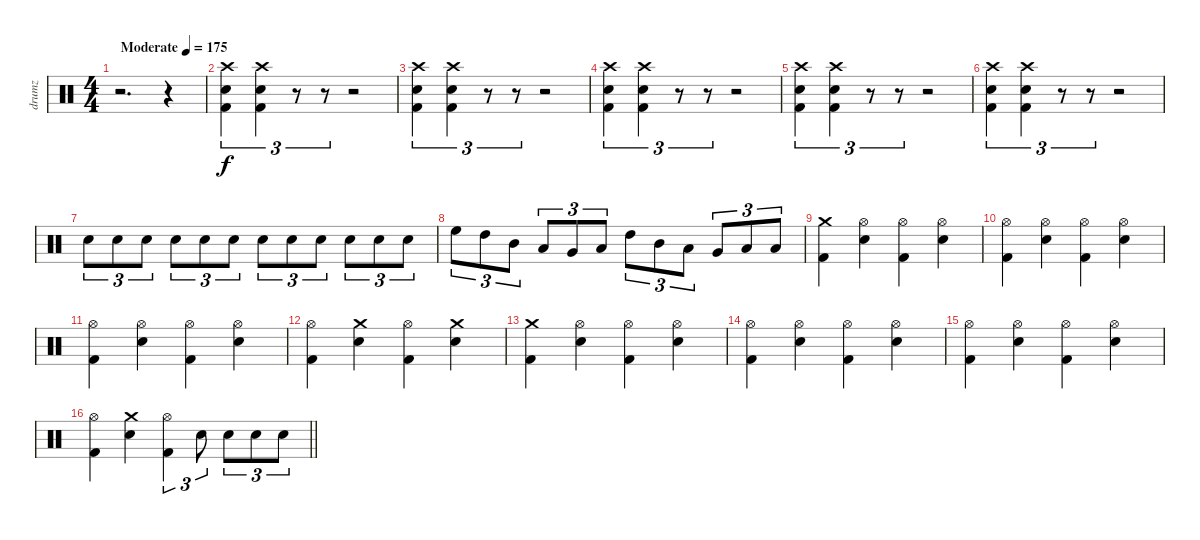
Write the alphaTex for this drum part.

\track ("drumz" "drumz") {instrument percussion}
\staff {score}
\articulation defaults
\ts (4 4)
\tempo (175 "Moderate")
\clef neutral
\ks c
r.2{d dy f} r.4 |
("Crash high (hit)" "Electric Snare (hit)" "Kick (hit) 2").4{tu (3 2)} ("Crash high (hit)" "Electric Snare (hit)" "Kick (hit) 2").4{tu (3 2)} r.8{tu (3 2)} r.8{tu (3 2)} r.2 |
("Crash high (hit)" "Electric Snare (hit)" "Kick (hit) 2").4{tu (3 2)} ("Crash high (hit)" "Electric Snare (hit)" "Kick (hit) 2").4{tu (3 2)} r.8{tu (3 2)} r.8{tu (3 2)} r.2 |
("Crash high (hit)" "Electric Snare (hit)" "Kick (hit) 2").4{tu (3 2)} ("Crash high (hit)" "Electric Snare (hit)" "Kick (hit) 2").4{tu (3 2)} r.8{tu (3 2)} r.8{tu (3 2)} r.2 |
("Crash high (hit)" "Electric Snare (hit)" "Kick (hit) 2").4{tu (3 2)} ("Crash high (hit)" "Electric Snare (hit)" "Kick (hit) 2").4{tu (3 2)} r.8{tu (3 2)} r.8{tu (3 2)} r.2 |
("Crash high (hit)" "Electric Snare (hit)" "Kick (hit) 2").4{tu (3 2)} ("Crash high (hit)" "Electric Snare (hit)" "Kick (hit) 2").4{tu (3 2)} r.8{tu (3 2)} r.8{tu (3 2)} r.2 |
"Electric Snare (hit)".8{tu (3 2)} "Electric Snare (hit)".8{tu (3 2)} "Electric Snare (hit)".8{tu (3 2)} "Electric Snare (hit)".8{tu (3 2)} "Electric Snare (hit)".8{tu (3 2)} "Electric Snare (hit)".8{tu (3 2)} "Electric Snare (hit)".8{tu (3 2)} "Electric Snare (hit)".8{tu (3 2)} "Electric Snare (hit)".8{tu (3 2)} "Electric Snare (hit)".8{tu (3 2)} "Electric Snare (hit)".8{tu (3 2)} "Electric Snare (hit)".8{tu (3 2)} |
"High Floor Tom (hit)".8{tu (3 2)} "High Tom (hit)".8{tu (3 2)} "Mid Tom (hit)".8{tu (3 2)} "Low Tom (hit)".8{tu (3 2)} "Very Low Tom (hit)".8{tu (3 2)} "Low Floor Tom (hit)".8{tu (3 2)} "High Tom (hit)".8{tu (3 2)} "Mid Tom (hit)".8{tu (3 2)} "Low Tom (hit)".8{tu (3 2)} "Very Low Tom (hit)".8{tu (3 2)} "Low Floor Tom (hit)".8{tu (3 2)} "Low Floor Tom (hit)".8{tu (3 2)} |
("Crash medium (hit)" "Kick (hit) 2").4 ("Hi-Hat (open)" "Electric Snare (hit)").4 ("Hi-Hat (open)" "Kick (hit) 2").4 ("Hi-Hat (open)" "Electric Snare (hit)").4 |
("Hi-Hat (open)" "Kick (hit) 2").4 ("Hi-Hat (open)" "Electric Snare (hit)").4 ("Hi-Hat (open)" "Kick (hit) 2").4 ("Hi-Hat (open)" "Electric Snare (hit)").4 |
("Hi-Hat (open)" "Kick (hit) 2").4 ("Hi-Hat (open)" "Electric Snare (hit)").4 ("Hi-Hat (open)" "Kick (hit) 2").4 ("Hi-Hat (open)" "Electric Snare (hit)").4 |
("Hi-Hat (open)" "Kick (hit) 2").4 ("Crash medium (hit)" "Electric Snare (hit)").4 ("Hi-Hat (open)" "Kick (hit) 2").4 ("Crash medium (hit)" "Electric Snare (hit)").4 |
("Crash medium (hit)" "Kick (hit) 2").4 ("Hi-Hat (open)" "Electric Snare (hit)").4 ("Hi-Hat (open)" "Kick (hit) 2").4 ("Hi-Hat (open)" "Electric Snare (hit)").4 |
("Hi-Hat (open)" "Kick (hit) 2").4 ("Hi-Hat (open)" "Electric Snare (hit)").4 ("Hi-Hat (open)" "Kick (hit) 2").4 ("Hi-Hat (open)" "Electric Snare (hit)").4 |
("Hi-Hat (open)" "Kick (hit) 2").4 ("Hi-Hat (open)" "Electric Snare (hit)").4 ("Hi-Hat (open)" "Kick (hit) 2").4 ("Hi-Hat (open)" "Electric Snare (hit)").4 |
\barLineRight lightlight
("Hi-Hat (open)" "Kick (hit) 2").4 ("Crash medium (hit)" "Electric Snare (hit)").4 ("Hi-Hat (open)" "Kick (hit) 2").4{tu (3 2)} "Electric Snare (hit)".8{tu (3 2)} "Electric Snare (hit)".8{tu (3 2)} "Electric Snare (hit)".8{tu (3 2)} "Electric Snare (hit)".8{tu (3 2)}
